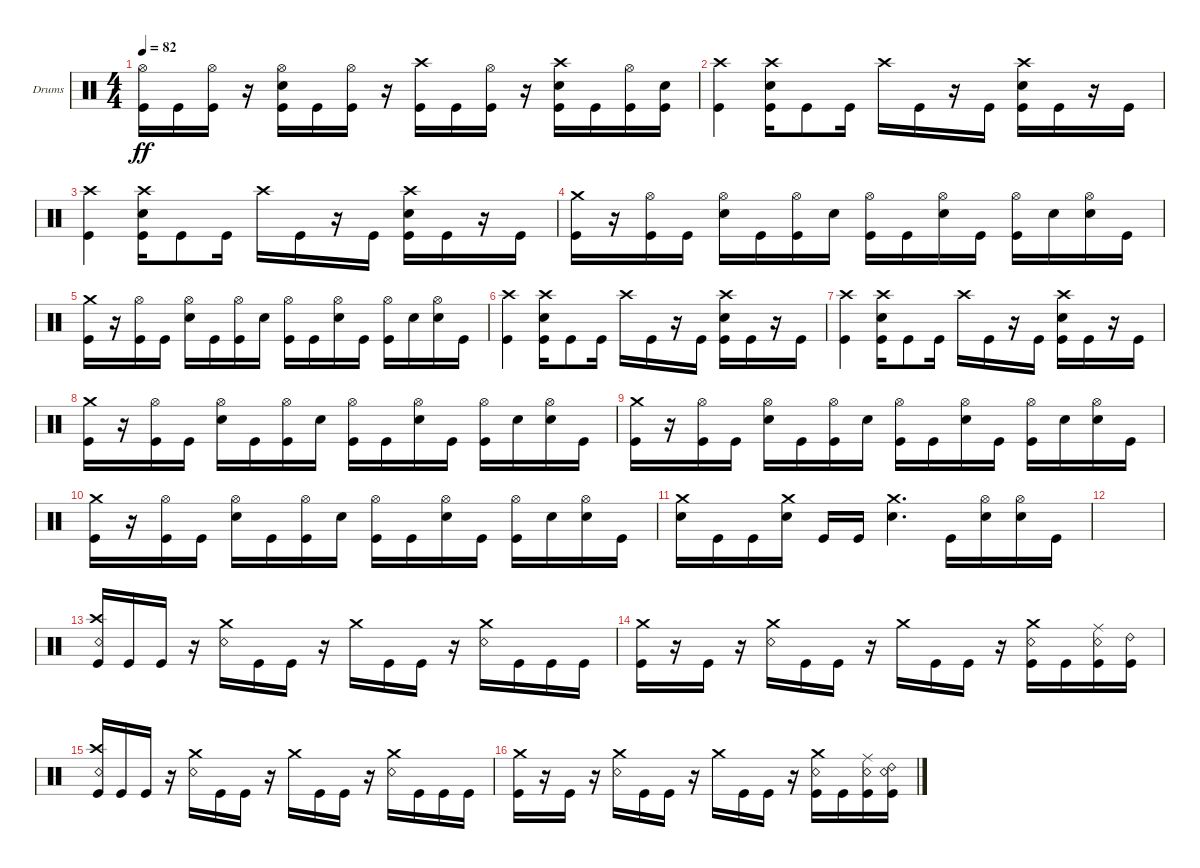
\bracketExtendMode groupsimilarinstruments
\firstSystemTrackNameOrientation horizontal
\otherSystemsTrackNameOrientation horizontal
\track ("Drumkit" "Drums") {instrument percussion}
\staff {score}
\articulation defaults
\ts (4 4)
\tempo 82
\clef neutral
\ks c
("Kick (hit)" "Hi-Hat (open)").16{dy ff} "Kick (hit)".16 ("Kick (hit)" "Hi-Hat (open)").16 r.16 ("Kick (hit)" "Snare (hit) 2" "Hi-Hat (open)").16 "Kick (hit)".16 ("Kick (hit)" "Hi-Hat (open)").16 r.16 ("Kick (hit)" "Crash high (hit)").16 "Kick (hit)".16 ("Kick (hit)" "Hi-Hat (open)").16 r.16 ("Kick (hit)" "Snare (hit) 2" "Crash high (hit)").16 "Kick (hit)".16 ("Kick (hit)" "Hi-Hat (open)").16 ("Kick (hit)" "Snare (hit) 2").16 |
("Crash high (hit)" "Kick (hit)").4 ("Kick (hit)" "Snare (hit) 2" "Crash high (hit)").16 "Kick (hit)".8 "Kick (hit)".16 "Crash high (hit)".16 "Kick (hit)".16 r.16 "Kick (hit)".16 ("Kick (hit)" "Snare (hit) 2" "Crash high (hit)").16 "Kick (hit)".16 r.16 "Kick (hit)".16 |
("Crash high (hit)" "Kick (hit)").4 ("Kick (hit)" "Snare (hit) 2" "Crash high (hit)").16 "Kick (hit)".8 "Kick (hit)".16 "Crash high (hit)".16 "Kick (hit)".16 r.16 "Kick (hit)".16 ("Kick (hit)" "Snare (hit) 2" "Crash high (hit)").16 "Kick (hit)".16 r.16 "Kick (hit)".16 |
("Crash medium (hit)" "Kick (hit)").16 r.16 ("Kick (hit)" "Hi-Hat (open)").16 "Kick (hit)".16 ("Snare (hit) 2" "Hi-Hat (open)").16 "Kick (hit)".16 ("Kick (hit)" "Hi-Hat (open)").16 "Snare (hit) 2".16 ("Kick (hit)" "Hi-Hat (open)").16 "Kick (hit)".16 ("Snare (hit) 2" "Hi-Hat (open)").16 "Kick (hit)".16 ("Kick (hit)" "Hi-Hat (open)").16 "Snare (hit) 2".16 ("Snare (hit) 2" "Hi-Hat (open)").16 "Kick (hit)".16 |
("Crash medium (hit)" "Kick (hit)").16 r.16 ("Kick (hit)" "Hi-Hat (open)").16 "Kick (hit)".16 ("Snare (hit) 2" "Hi-Hat (open)").16 "Kick (hit)".16 ("Kick (hit)" "Hi-Hat (open)").16 "Snare (hit) 2".16 ("Kick (hit)" "Hi-Hat (open)").16 "Kick (hit)".16 ("Snare (hit) 2" "Hi-Hat (open)").16 "Kick (hit)".16 ("Kick (hit)" "Hi-Hat (open)").16 "Snare (hit) 2".16 ("Snare (hit) 2" "Hi-Hat (open)").16 "Kick (hit)".16 |
("Crash high (hit)" "Kick (hit)").4 ("Kick (hit)" "Snare (hit) 2" "Crash high (hit)").16 "Kick (hit)".8 "Kick (hit)".16 "Crash high (hit)".16 "Kick (hit)".16 r.16 "Kick (hit)".16 ("Kick (hit)" "Snare (hit) 2" "Crash high (hit)").16 "Kick (hit)".16 r.16 "Kick (hit)".16 |
("Crash high (hit)" "Kick (hit)").4 ("Kick (hit)" "Snare (hit) 2" "Crash high (hit)").16 "Kick (hit)".8 "Kick (hit)".16 "Crash high (hit)".16 "Kick (hit)".16 r.16 "Kick (hit)".16 ("Kick (hit)" "Snare (hit) 2" "Crash high (hit)").16 "Kick (hit)".16 r.16 "Kick (hit)".16 |
("Crash medium (hit)" "Kick (hit)").16 r.16 ("Kick (hit)" "Hi-Hat (open)").16 "Kick (hit)".16 ("Snare (hit) 2" "Hi-Hat (open)").16 "Kick (hit)".16 ("Kick (hit)" "Hi-Hat (open)").16 "Snare (hit) 2".16 ("Kick (hit)" "Hi-Hat (open)").16 "Kick (hit)".16 ("Snare (hit) 2" "Hi-Hat (open)").16 "Kick (hit)".16 ("Kick (hit)" "Hi-Hat (open)").16 "Snare (hit) 2".16 ("Snare (hit) 2" "Hi-Hat (open)").16 "Kick (hit)".16 |
("Crash medium (hit)" "Kick (hit)").16 r.16 ("Kick (hit)" "Hi-Hat (open)").16 "Kick (hit)".16 ("Snare (hit) 2" "Hi-Hat (open)").16 "Kick (hit)".16 ("Kick (hit)" "Hi-Hat (open)").16 "Snare (hit) 2".16 ("Kick (hit)" "Hi-Hat (open)").16 "Kick (hit)".16 ("Snare (hit) 2" "Hi-Hat (open)").16 "Kick (hit)".16 ("Kick (hit)" "Hi-Hat (open)").16 "Snare (hit) 2".16 ("Snare (hit) 2" "Hi-Hat (open)").16 "Kick (hit)".16 |
("Crash medium (hit)" "Kick (hit)").16 r.16 ("Kick (hit)" "Hi-Hat (open)").16 "Kick (hit)".16 ("Snare (hit) 2" "Hi-Hat (open)").16 "Kick (hit)".16 ("Kick (hit)" "Hi-Hat (open)").16 "Snare (hit) 2".16 ("Kick (hit)" "Hi-Hat (open)").16 "Kick (hit)".16 ("Snare (hit) 2" "Hi-Hat (open)").16 "Kick (hit)".16 ("Kick (hit)" "Hi-Hat (open)").16 "Snare (hit) 2".16 ("Snare (hit) 2" "Hi-Hat (open)").16 "Kick (hit)".16 |
("Crash medium (hit)" "Snare (hit) 2").16 "Kick (hit)".16 "Kick (hit)".16 ("Crash medium (hit)" "Snare (hit) 2").16 "Kick (hit)".16 "Kick (hit)".16 ("Crash medium (hit)" "Snare (hit) 2").4{d} "Kick (hit)".16 ("Snare (hit) 2" "Hi-Hat (open)").16 ("Snare (hit) 2" "Hi-Hat (open)").16 "Kick (hit)".16 |
|
("Crash high (hit)" "Snare (rim shot)" "Kick (hit)").16 "Kick (hit)".16 "Kick (hit)".16 r.16 ("Snare (rim shot)" "Crash medium (hit)").16 "Kick (hit)".16 "Kick (hit)".16 r.16 "Crash medium (hit)".16 "Kick (hit)".16 "Kick (hit)".16 r.16 ("Snare (rim shot)" "Crash medium (hit)").16 "Kick (hit)".16 "Kick (hit)".16 "Kick (hit)".16 |
("Kick (hit)" "Crash medium (hit)").16 r.16 "Kick (hit)".16 r.16 ("Snare (rim shot)" "Crash medium (hit)").16 "Kick (hit)".16 "Kick (hit)".16 r.16 "Crash medium (hit)".16 "Kick (hit)".16 "Kick (hit)".16 r.16 ("Kick (hit)" "Snare (rim shot)" "Crash medium (hit)").16 "Kick (hit)".16 ("Kick (hit)" "Snare (rim shot)" "Ride (middle)").16 ("Kick (hit)" "Ride (bell) 2").16 |
("Snare (rim shot)" "Kick (hit)" "Crash high (hit)").16 "Kick (hit)".16 "Kick (hit)".16 r.16 ("Snare (rim shot)" "Crash medium (hit)").16 "Kick (hit)".16 "Kick (hit)".16 r.16 "Crash medium (hit)".16 "Kick (hit)".16 "Kick (hit)".16 r.16 ("Snare (rim shot)" "Crash medium (hit)").16 "Kick (hit)".16 "Kick (hit)".16 "Kick (hit)".16 |
("Kick (hit)" "Crash medium (hit)").16 r.16 "Kick (hit)".16 r.16 ("Snare (rim shot)" "Crash medium (hit)").16 "Kick (hit)".16 "Kick (hit)".16 r.16 "Crash medium (hit)".16 "Kick (hit)".16 "Kick (hit)".16 r.16 ("Kick (hit)" "Snare (rim shot)" "Crash medium (hit)").16 "Kick (hit)".16 ("Kick (hit)" "Snare (rim shot)" "Ride (middle)").16 ("Kick (hit)" "Snare (rim shot)" "Ride (bell) 2").16
